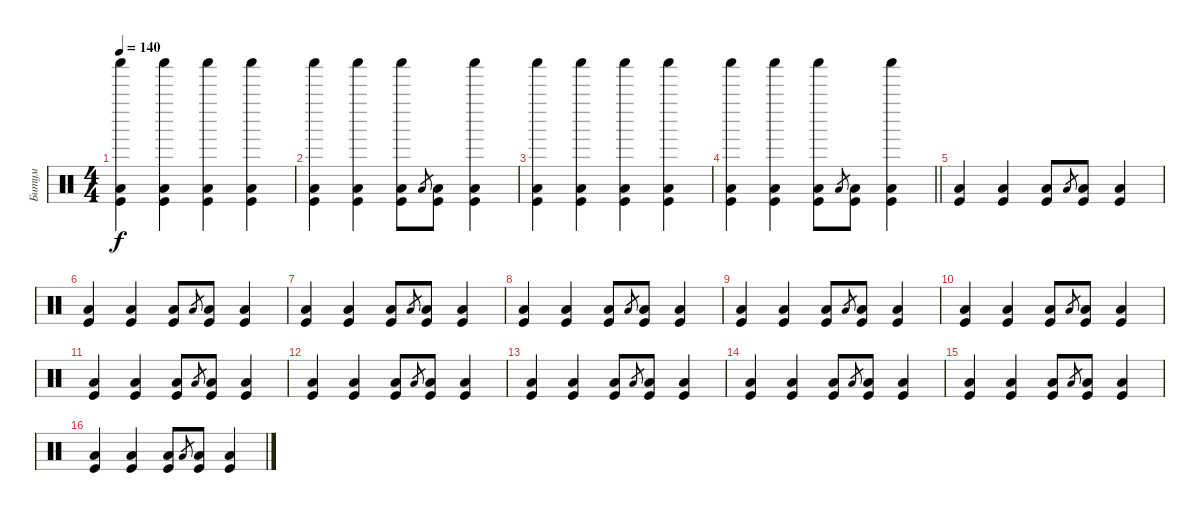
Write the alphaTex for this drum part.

\track ("Битум" "Битум") {instrument percussion}
\staff {score}
\articulation defaults
\ts (4 4)
\tempo 140
\clef neutral
\ks c
("Shaker (hit)" "Low Floor Tom (hit)" "Kick (hit)").4{dy f} ("Shaker (hit)" "Low Floor Tom (hit)" "Kick (hit)").4 ("Shaker (hit)" "Low Floor Tom (hit)" "Kick (hit)").4 ("Shaker (hit)" "Low Floor Tom (hit)" "Kick (hit)").4 |
("Shaker (hit)" "Low Floor Tom (hit)" "Kick (hit)").4 ("Shaker (hit)" "Low Floor Tom (hit)" "Kick (hit)").4 ("Shaker (hit)" "Low Floor Tom (hit)" "Kick (hit)").8 "Low Floor Tom (hit)".8{gr} ("Low Floor Tom (hit)" "Kick (hit)").8 ("Shaker (hit)" "Low Floor Tom (hit)" "Kick (hit)").4 |
("Shaker (hit)" "Low Floor Tom (hit)" "Kick (hit)").4 ("Shaker (hit)" "Low Floor Tom (hit)" "Kick (hit)").4 ("Shaker (hit)" "Low Floor Tom (hit)" "Kick (hit)").4 ("Shaker (hit)" "Low Floor Tom (hit)" "Kick (hit)").4 |
\barLineRight lightlight
("Shaker (hit)" "Low Floor Tom (hit)" "Kick (hit)").4 ("Shaker (hit)" "Low Floor Tom (hit)" "Kick (hit)").4 ("Shaker (hit)" "Low Floor Tom (hit)" "Kick (hit)").8 "Low Floor Tom (hit)".8{gr} ("Low Floor Tom (hit)" "Kick (hit)").8 ("Shaker (hit)" "Low Floor Tom (hit)" "Kick (hit)").4 |
("Low Floor Tom (hit)" "Kick (hit)").4 ("Low Floor Tom (hit)" "Kick (hit)").4 ("Low Floor Tom (hit)" "Kick (hit)").8 "Low Floor Tom (hit)".8{gr} ("Low Floor Tom (hit)" "Kick (hit)").8 ("Low Floor Tom (hit)" "Kick (hit)").4 |
("Low Floor Tom (hit)" "Kick (hit)").4 ("Low Floor Tom (hit)" "Kick (hit)").4 ("Low Floor Tom (hit)" "Kick (hit)").8 "Low Floor Tom (hit)".8{gr} ("Low Floor Tom (hit)" "Kick (hit)").8 ("Low Floor Tom (hit)" "Kick (hit)").4 |
("Low Floor Tom (hit)" "Kick (hit)").4 ("Low Floor Tom (hit)" "Kick (hit)").4 ("Low Floor Tom (hit)" "Kick (hit)").8 "Low Floor Tom (hit)".8{gr} ("Low Floor Tom (hit)" "Kick (hit)").8 ("Low Floor Tom (hit)" "Kick (hit)").4 |
("Low Floor Tom (hit)" "Kick (hit)").4 ("Low Floor Tom (hit)" "Kick (hit)").4 ("Low Floor Tom (hit)" "Kick (hit)").8 "Low Floor Tom (hit)".8{gr} ("Low Floor Tom (hit)" "Kick (hit)").8 ("Low Floor Tom (hit)" "Kick (hit)").4 |
("Low Floor Tom (hit)" "Kick (hit)").4 ("Low Floor Tom (hit)" "Kick (hit)").4 ("Low Floor Tom (hit)" "Kick (hit)").8 "Low Floor Tom (hit)".8{gr} ("Low Floor Tom (hit)" "Kick (hit)").8 ("Low Floor Tom (hit)" "Kick (hit)").4 |
("Low Floor Tom (hit)" "Kick (hit)").4 ("Low Floor Tom (hit)" "Kick (hit)").4 ("Low Floor Tom (hit)" "Kick (hit)").8 "Low Floor Tom (hit)".8{gr} ("Low Floor Tom (hit)" "Kick (hit)").8 ("Low Floor Tom (hit)" "Kick (hit)").4 |
("Low Floor Tom (hit)" "Kick (hit)").4 ("Low Floor Tom (hit)" "Kick (hit)").4 ("Low Floor Tom (hit)" "Kick (hit)").8 "Low Floor Tom (hit)".8{gr} ("Low Floor Tom (hit)" "Kick (hit)").8 ("Low Floor Tom (hit)" "Kick (hit)").4 |
("Low Floor Tom (hit)" "Kick (hit)").4 ("Low Floor Tom (hit)" "Kick (hit)").4 ("Low Floor Tom (hit)" "Kick (hit)").8 "Low Floor Tom (hit)".8{gr} ("Low Floor Tom (hit)" "Kick (hit)").8 ("Low Floor Tom (hit)" "Kick (hit)").4 |
("Low Floor Tom (hit)" "Kick (hit)").4 ("Low Floor Tom (hit)" "Kick (hit)").4 ("Low Floor Tom (hit)" "Kick (hit)").8 "Low Floor Tom (hit)".8{gr} ("Low Floor Tom (hit)" "Kick (hit)").8 ("Low Floor Tom (hit)" "Kick (hit)").4 |
("Low Floor Tom (hit)" "Kick (hit)").4 ("Low Floor Tom (hit)" "Kick (hit)").4 ("Low Floor Tom (hit)" "Kick (hit)").8 "Low Floor Tom (hit)".8{gr} ("Low Floor Tom (hit)" "Kick (hit)").8 ("Low Floor Tom (hit)" "Kick (hit)").4 |
("Low Floor Tom (hit)" "Kick (hit)").4 ("Low Floor Tom (hit)" "Kick (hit)").4 ("Low Floor Tom (hit)" "Kick (hit)").8 "Low Floor Tom (hit)".8{gr} ("Low Floor Tom (hit)" "Kick (hit)").8 ("Low Floor Tom (hit)" "Kick (hit)").4 |
("Low Floor Tom (hit)" "Kick (hit)").4 ("Low Floor Tom (hit)" "Kick (hit)").4 ("Low Floor Tom (hit)" "Kick (hit)").8 "Low Floor Tom (hit)".8{gr} ("Low Floor Tom (hit)" "Kick (hit)").8 ("Low Floor Tom (hit)" "Kick (hit)").4
